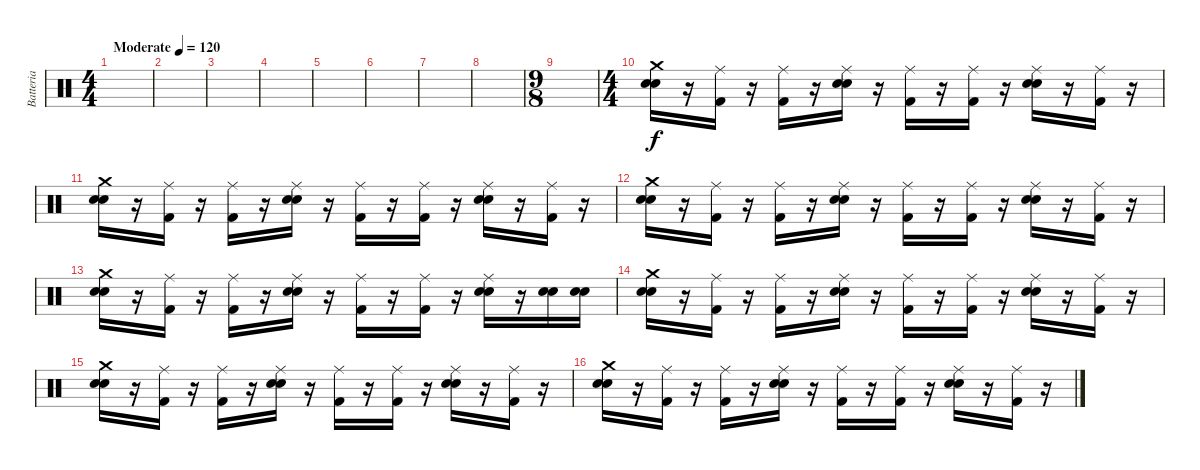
\track ("Batteria" "Batteria") {instrument percussion}
\staff {score}
\articulation defaults
\ts (4 4)
\tempo (120 "Moderate")
\clef neutral
\ks c
|
|
|
|
|
|
|
|
\ts (9 8)
|
\ts (4 4)
("Snare (hit) 2" "Snare (hit) 2" "Crash medium (hit)").16 r.16 ("Kick (hit) 2" "Ride (middle)").16 r.16 ("Kick (hit) 2" "Ride (middle)").16 r.16 ("Snare (hit) 2" "Snare (hit) 2" "Ride (middle)").16 r.16 ("Kick (hit) 2" "Ride (middle)").16 r.16 ("Kick (hit) 2" "Ride (middle)").16 r.16 ("Snare (hit) 2" "Snare (hit) 2" "Ride (middle)").16 r.16 ("Kick (hit) 2" "Ride (middle)").16 r.16 |
("Snare (hit) 2" "Snare (hit) 2" "Crash medium (hit)").16 r.16 ("Kick (hit) 2" "Ride (middle)").16 r.16 ("Kick (hit) 2" "Ride (middle)").16 r.16 ("Snare (hit) 2" "Snare (hit) 2" "Ride (middle)").16 r.16 ("Kick (hit) 2" "Ride (middle)").16 r.16 ("Kick (hit) 2" "Ride (middle)").16 r.16 ("Snare (hit) 2" "Snare (hit) 2" "Ride (middle)").16 r.16 ("Kick (hit) 2" "Ride (middle)").16 r.16 |
("Snare (hit) 2" "Snare (hit) 2" "Crash medium (hit)").16 r.16 ("Kick (hit) 2" "Ride (middle)").16 r.16 ("Kick (hit) 2" "Ride (middle)").16 r.16 ("Snare (hit) 2" "Snare (hit) 2" "Ride (middle)").16 r.16 ("Kick (hit) 2" "Ride (middle)").16 r.16 ("Kick (hit) 2" "Ride (middle)").16 r.16 ("Snare (hit) 2" "Snare (hit) 2" "Ride (middle)").16 r.16 ("Kick (hit) 2" "Ride (middle)").16 r.16 |
("Snare (hit) 2" "Snare (hit) 2" "Crash medium (hit)").16 r.16 ("Kick (hit) 2" "Ride (middle)").16 r.16 ("Kick (hit) 2" "Ride (middle)").16 r.16 ("Snare (hit) 2" "Snare (hit) 2" "Ride (middle)").16 r.16 ("Kick (hit) 2" "Ride (middle)").16 r.16 ("Kick (hit) 2" "Ride (middle)").16 r.16 ("Snare (hit) 2" "Snare (hit) 2" "Ride (middle)").16 r.16 ("Snare (hit) 2" "Snare (hit) 2").16 ("Snare (hit) 2" "Snare (hit) 2").16 |
("Snare (hit) 2" "Snare (hit) 2" "Crash medium (hit)").16 r.16 ("Kick (hit) 2" "Ride (middle)").16 r.16 ("Kick (hit) 2" "Ride (middle)").16 r.16 ("Snare (hit) 2" "Snare (hit) 2" "Ride (middle)").16 r.16 ("Kick (hit) 2" "Ride (middle)").16 r.16 ("Kick (hit) 2" "Ride (middle)").16 r.16 ("Snare (hit) 2" "Snare (hit) 2" "Ride (middle)").16 r.16 ("Kick (hit) 2" "Ride (middle)").16 r.16 |
("Snare (hit) 2" "Snare (hit) 2" "Crash medium (hit)").16 r.16 ("Kick (hit) 2" "Ride (middle)").16 r.16 ("Kick (hit) 2" "Ride (middle)").16 r.16 ("Snare (hit) 2" "Snare (hit) 2" "Ride (middle)").16 r.16 ("Kick (hit) 2" "Ride (middle)").16 r.16 ("Kick (hit) 2" "Ride (middle)").16 r.16 ("Snare (hit) 2" "Snare (hit) 2" "Ride (middle)").16 r.16 ("Kick (hit) 2" "Ride (middle)").16 r.16 |
("Snare (hit) 2" "Snare (hit) 2" "Crash medium (hit)").16 r.16 ("Kick (hit) 2" "Ride (middle)").16 r.16 ("Kick (hit) 2" "Ride (middle)").16 r.16 ("Snare (hit) 2" "Snare (hit) 2" "Ride (middle)").16 r.16 ("Kick (hit) 2" "Ride (middle)").16 r.16 ("Kick (hit) 2" "Ride (middle)").16 r.16 ("Snare (hit) 2" "Snare (hit) 2" "Ride (middle)").16 r.16 ("Kick (hit) 2" "Ride (middle)").16 r.16
